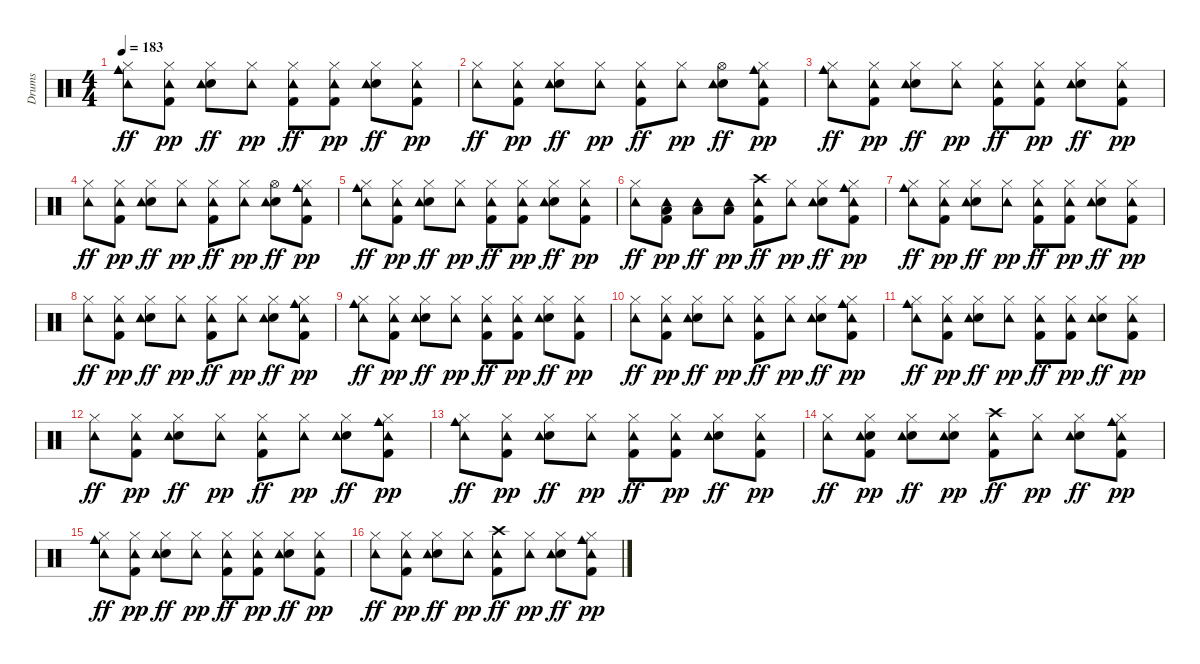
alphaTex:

\track ("Drums" "Drums") {instrument percussion}
\staff {score}
\articulation defaults
\ts (4 4)
\tempo 183
\clef neutral
\ks c
("Cowbell medium (hit)" "Hi-Hat (closed)" "Tambourine (hit)").8{dy ff} ("Kick (hit) 2" "Hi-Hat (closed)" "Tambourine (hit)").8{dy pp} ("Snare (hit) 2" "Hi-Hat (closed)" "Tambourine (hit)").8{dy ff} ("Hi-Hat (closed)" "Tambourine (hit)").8{dy pp} ("Kick (hit) 2" "Hi-Hat (closed)" "Tambourine (hit)").8{dy ff} ("Kick (hit) 2" "Hi-Hat (closed)" "Tambourine (hit)").8{dy pp} ("Snare (hit) 2" "Hi-Hat (closed)" "Tambourine (hit)").8{dy ff} ("Kick (hit) 2" "Hi-Hat (closed)" "Tambourine (hit)").8{dy pp} |
("Hi-Hat (closed)" "Tambourine (hit)").8{dy ff} ("Kick (hit) 2" "Hi-Hat (closed)" "Tambourine (hit)").8{dy pp} ("Snare (hit) 2" "Hi-Hat (closed)" "Tambourine (hit)").8{dy ff} ("Hi-Hat (closed)" "Tambourine (hit)").8{dy pp} ("Kick (hit) 2" "Hi-Hat (closed)" "Tambourine (hit)").8{dy ff} ("Hi-Hat (closed)" "Tambourine (hit)").8{dy pp} ("Snare (hit) 2" "Hi-Hat (open)" "Tambourine (hit)").8{dy ff} ("Cowbell medium (hit)" "Kick (hit) 2" "Hi-Hat (closed)" "Tambourine (hit)").8{dy pp} |
("Cowbell medium (hit)" "Hi-Hat (closed)" "Tambourine (hit)").8{dy ff} ("Kick (hit) 2" "Hi-Hat (closed)" "Tambourine (hit)").8{dy pp} ("Snare (hit) 2" "Hi-Hat (closed)" "Tambourine (hit)").8{dy ff} ("Hi-Hat (closed)" "Tambourine (hit)").8{dy pp} ("Kick (hit) 2" "Hi-Hat (closed)" "Tambourine (hit)").8{dy ff} ("Kick (hit) 2" "Hi-Hat (closed)" "Tambourine (hit)").8{dy pp} ("Snare (hit) 2" "Hi-Hat (closed)" "Tambourine (hit)").8{dy ff} ("Kick (hit) 2" "Hi-Hat (closed)" "Tambourine (hit)").8{dy pp} |
("Hi-Hat (closed)" "Tambourine (hit)").8{dy ff} ("Kick (hit) 2" "Hi-Hat (closed)" "Tambourine (hit)").8{dy pp} ("Snare (hit) 2" "Hi-Hat (closed)" "Tambourine (hit)").8{dy ff} ("Hi-Hat (closed)" "Tambourine (hit)").8{dy pp} ("Kick (hit) 2" "Hi-Hat (closed)" "Tambourine (hit)").8{dy ff} ("Hi-Hat (closed)" "Tambourine (hit)").8{dy pp} ("Snare (hit) 2" "Hi-Hat (open)" "Tambourine (hit)").8{dy ff} ("Cowbell medium (hit)" "Kick (hit) 2" "Hi-Hat (closed)" "Tambourine (hit)").8{dy pp} |
("Cowbell medium (hit)" "Hi-Hat (closed)" "Tambourine (hit)").8{dy ff} ("Kick (hit) 2" "Hi-Hat (closed)" "Tambourine (hit)").8{dy pp} ("Snare (hit) 2" "Hi-Hat (closed)" "Tambourine (hit)").8{dy ff} ("Hi-Hat (closed)" "Tambourine (hit)").8{dy pp} ("Kick (hit) 2" "Hi-Hat (closed)" "Tambourine (hit)").8{dy ff} ("Kick (hit) 2" "Hi-Hat (closed)" "Tambourine (hit)").8{dy pp} ("Snare (hit) 2" "Hi-Hat (closed)" "Tambourine (hit)").8{dy ff} ("Kick (hit) 2" "Hi-Hat (closed)" "Tambourine (hit)").8{dy pp} |
("Hi-Hat (closed)" "Tambourine (hit)").8{dy ff} ("Kick (hit) 2" "Low Tom (hit)" "Tambourine (hit)").8{dy pp} ("Low Tom (hit)" "Tambourine (hit)").8{dy ff} ("Low Floor Tom (hit)" "Tambourine (hit)").8{dy pp} ("Kick (hit) 2" "Crash high (hit)" "Tambourine (hit)").8{dy ff} ("Hi-Hat (closed)" "Tambourine (hit)").8{dy pp} ("Snare (hit) 2" "Hi-Hat (closed)" "Tambourine (hit)").8{dy ff} ("Cowbell medium (hit)" "Kick (hit) 2" "Hi-Hat (closed)" "Tambourine (hit)").8{dy pp} |
("Cowbell medium (hit)" "Hi-Hat (closed)" "Tambourine (hit)").8{dy ff} ("Kick (hit) 2" "Hi-Hat (closed)" "Tambourine (hit)").8{dy pp} ("Snare (hit) 2" "Hi-Hat (closed)" "Tambourine (hit)").8{dy ff} ("Hi-Hat (closed)" "Tambourine (hit)").8{dy pp} ("Kick (hit) 2" "Hi-Hat (closed)" "Tambourine (hit)").8{dy ff} ("Kick (hit) 2" "Hi-Hat (closed)" "Tambourine (hit)").8{dy pp} ("Snare (hit) 2" "Hi-Hat (closed)" "Tambourine (hit)").8{dy ff} ("Kick (hit) 2" "Hi-Hat (closed)" "Tambourine (hit)").8{dy pp} |
("Hi-Hat (closed)" "Tambourine (hit)").8{dy ff} ("Kick (hit) 2" "Hi-Hat (closed)" "Tambourine (hit)").8{dy pp} ("Snare (hit) 2" "Hi-Hat (closed)" "Tambourine (hit)").8{dy ff} ("Hi-Hat (closed)" "Tambourine (hit)").8{dy pp} ("Kick (hit) 2" "Hi-Hat (closed)" "Tambourine (hit)").8{dy ff} ("Hi-Hat (closed)" "Tambourine (hit)").8{dy pp} ("Snare (hit) 2" "Hi-Hat (closed)" "Tambourine (hit)").8{dy ff} ("Cowbell medium (hit)" "Kick (hit) 2" "Hi-Hat (closed)" "Tambourine (hit)").8{dy pp} |
("Cowbell medium (hit)" "Hi-Hat (closed)" "Tambourine (hit)").8{dy ff} ("Kick (hit) 2" "Hi-Hat (closed)" "Tambourine (hit)").8{dy pp} ("Snare (hit) 2" "Hi-Hat (closed)" "Tambourine (hit)").8{dy ff} ("Hi-Hat (closed)" "Tambourine (hit)").8{dy pp} ("Kick (hit) 2" "Hi-Hat (closed)" "Tambourine (hit)").8{dy ff} ("Kick (hit) 2" "Hi-Hat (closed)" "Tambourine (hit)").8{dy pp} ("Snare (hit) 2" "Hi-Hat (closed)" "Tambourine (hit)").8{dy ff} ("Kick (hit) 2" "Hi-Hat (closed)" "Tambourine (hit)").8{dy pp} |
("Hi-Hat (closed)" "Tambourine (hit)").8{dy ff} ("Kick (hit) 2" "Hi-Hat (closed)" "Tambourine (hit)").8{dy pp} ("Snare (hit) 2" "Hi-Hat (closed)" "Tambourine (hit)").8{dy ff} ("Hi-Hat (closed)" "Tambourine (hit)").8{dy pp} ("Kick (hit) 2" "Hi-Hat (closed)" "Tambourine (hit)").8{dy ff} ("Hi-Hat (closed)" "Tambourine (hit)").8{dy pp} ("Snare (hit) 2" "Hi-Hat (closed)" "Tambourine (hit)").8{dy ff} ("Cowbell medium (hit)" "Kick (hit) 2" "Hi-Hat (closed)" "Tambourine (hit)").8{dy pp} |
("Cowbell medium (hit)" "Hi-Hat (closed)" "Tambourine (hit)").8{dy ff} ("Kick (hit) 2" "Hi-Hat (closed)" "Tambourine (hit)").8{dy pp} ("Snare (hit) 2" "Hi-Hat (closed)" "Tambourine (hit)").8{dy ff} ("Hi-Hat (closed)" "Tambourine (hit)").8{dy pp} ("Kick (hit) 2" "Hi-Hat (closed)" "Tambourine (hit)").8{dy ff} ("Kick (hit) 2" "Hi-Hat (closed)" "Tambourine (hit)").8{dy pp} ("Snare (hit) 2" "Hi-Hat (closed)" "Tambourine (hit)").8{dy ff} ("Kick (hit) 2" "Hi-Hat (closed)" "Tambourine (hit)").8{dy pp} |
("Hi-Hat (closed)" "Tambourine (hit)").8{dy ff} ("Kick (hit) 2" "Hi-Hat (closed)" "Tambourine (hit)").8{dy pp} ("Snare (hit) 2" "Hi-Hat (closed)" "Tambourine (hit)").8{dy ff} ("Hi-Hat (closed)" "Tambourine (hit)").8{dy pp} ("Kick (hit) 2" "Hi-Hat (closed)" "Tambourine (hit)").8{dy ff} ("Hi-Hat (closed)" "Tambourine (hit)").8{dy pp} ("Snare (hit) 2" "Hi-Hat (closed)" "Tambourine (hit)").8{dy ff} ("Cowbell medium (hit)" "Kick (hit) 2" "Hi-Hat (closed)" "Tambourine (hit)").8{dy pp} |
("Cowbell medium (hit)" "Hi-Hat (closed)" "Tambourine (hit)").8{dy ff} ("Kick (hit) 2" "Hi-Hat (closed)" "Tambourine (hit)").8{dy pp} ("Snare (hit) 2" "Hi-Hat (closed)" "Tambourine (hit)").8{dy ff} ("Hi-Hat (closed)" "Tambourine (hit)").8{dy pp} ("Kick (hit) 2" "Hi-Hat (closed)" "Tambourine (hit)").8{dy ff} ("Kick (hit) 2" "Hi-Hat (closed)" "Tambourine (hit)").8{dy pp} ("Snare (hit) 2" "Hi-Hat (closed)" "Tambourine (hit)").8{dy ff} ("Kick (hit) 2" "Hi-Hat (closed)" "Tambourine (hit)").8{dy pp} |
("Hi-Hat (closed)" "Tambourine (hit)").8{dy ff} ("Kick (hit) 2" "Snare (hit) 2" "Hi-Hat (closed)" "Tambourine (hit)").8{dy pp} ("Snare (hit) 2" "Hi-Hat (closed)" "Tambourine (hit)").8{dy ff} ("Snare (hit) 2" "Hi-Hat (closed)" "Tambourine (hit)").8{dy pp} ("Kick (hit) 2" "Crash high (hit)" "Tambourine (hit)").8{dy ff} ("Hi-Hat (closed)" "Tambourine (hit)").8{dy pp} ("Snare (hit) 2" "Hi-Hat (closed)" "Tambourine (hit)").8{dy ff} ("Cowbell medium (hit)" "Kick (hit) 2" "Hi-Hat (closed)" "Tambourine (hit)").8{dy pp} |
("Cowbell medium (hit)" "Hi-Hat (closed)" "Tambourine (hit)").8{dy ff} ("Kick (hit) 2" "Hi-Hat (closed)" "Tambourine (hit)").8{dy pp} ("Snare (hit) 2" "Hi-Hat (closed)" "Tambourine (hit)").8{dy ff} ("Hi-Hat (closed)" "Tambourine (hit)").8{dy pp} ("Kick (hit) 2" "Hi-Hat (closed)" "Tambourine (hit)").8{dy ff} ("Kick (hit) 2" "Hi-Hat (closed)" "Tambourine (hit)").8{dy pp} ("Snare (hit) 2" "Hi-Hat (closed)" "Tambourine (hit)").8{dy ff} ("Kick (hit) 2" "Hi-Hat (closed)" "Tambourine (hit)").8{dy pp} |
("Hi-Hat (closed)" "Tambourine (hit)").8{dy ff} ("Kick (hit) 2" "Hi-Hat (closed)" "Tambourine (hit)").8{dy pp} ("Snare (hit) 2" "Hi-Hat (closed)" "Tambourine (hit)").8{dy ff} ("Hi-Hat (closed)" "Tambourine (hit)").8{dy pp} ("Kick (hit) 2" "Crash high (hit)" "Tambourine (hit)").8{dy ff} ("Hi-Hat (closed)" "Tambourine (hit)").8{dy pp} ("Snare (hit) 2" "Hi-Hat (closed)" "Tambourine (hit)").8{dy ff} ("Cowbell medium (hit)" "Kick (hit) 2" "Hi-Hat (closed)" "Tambourine (hit)").8{dy pp}
